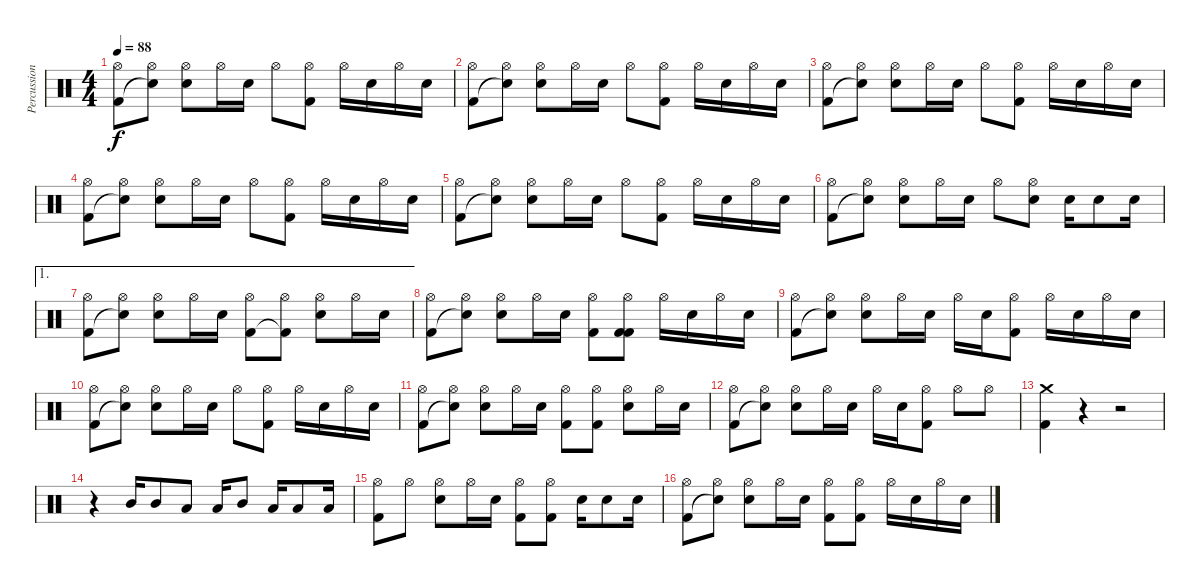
\track ("Percussion" "Percussion") {instrument percussion}
\staff {score}
\articulation defaults
\ts (4 4)
\tempo 88
\clef neutral
\ks c
("Hi-Hat (open)" "Kick (hit) 2").8{dy f} ("Hi-Hat (open)" "Snare (hit)"{t}).8 ("Hi-Hat (open)" "Snare (hit) 2").8 "Hi-Hat (open)".16 "Snare (hit) 2".16 "Hi-Hat (open)".8 ("Hi-Hat (open)" "Kick (hit) 2").8 "Hi-Hat (open)".16 "Snare (hit) 2".16 "Hi-Hat (open)".16 "Snare (hit) 2".16 |
("Hi-Hat (open)" "Kick (hit) 2").8 ("Hi-Hat (open)" "Snare (hit)"{t}).8 ("Hi-Hat (open)" "Snare (hit) 2").8 "Hi-Hat (open)".16 "Snare (hit) 2".16 "Hi-Hat (open)".8 ("Hi-Hat (open)" "Kick (hit) 2").8 "Hi-Hat (open)".16 "Snare (hit) 2".16 "Hi-Hat (open)".16 "Snare (hit) 2".16 |
("Hi-Hat (open)" "Kick (hit) 2").8 ("Hi-Hat (open)" "Snare (hit)"{t}).8 ("Hi-Hat (open)" "Snare (hit) 2").8 "Hi-Hat (open)".16 "Snare (hit) 2".16 "Hi-Hat (open)".8 ("Hi-Hat (open)" "Kick (hit) 2").8 "Hi-Hat (open)".16 "Snare (hit) 2".16 "Hi-Hat (open)".16 "Snare (hit) 2".16 |
("Hi-Hat (open)" "Kick (hit) 2").8 ("Hi-Hat (open)" "Snare (hit)"{t}).8 ("Hi-Hat (open)" "Snare (hit) 2").8 "Hi-Hat (open)".16 "Snare (hit) 2".16 "Hi-Hat (open)".8 ("Hi-Hat (open)" "Kick (hit) 2").8 "Hi-Hat (open)".16 "Snare (hit) 2".16 "Hi-Hat (open)".16 "Snare (hit) 2".16 |
("Hi-Hat (open)" "Kick (hit) 2").8 ("Hi-Hat (open)" "Snare (hit)"{t}).8 ("Hi-Hat (open)" "Snare (hit) 2").8 "Hi-Hat (open)".16 "Snare (hit) 2".16 "Hi-Hat (open)".8 ("Hi-Hat (open)" "Kick (hit) 2").8 "Hi-Hat (open)".16 "Snare (hit) 2".16 "Hi-Hat (open)".16 "Snare (hit) 2".16 |
("Hi-Hat (open)" "Kick (hit) 2").8 ("Hi-Hat (open)" "Snare (hit)"{t}).8 ("Hi-Hat (open)" "Snare (hit) 2").8 "Hi-Hat (open)".16 "Snare (hit) 2".16 "Hi-Hat (open)".8 ("Hi-Hat (open)" "Snare (hit) 2").8 "Snare (hit) 2".16 "Snare (hit) 2".8 "Snare (hit) 2".16 |
\ae 1
("Hi-Hat (open)" "Kick (hit) 2").8 ("Hi-Hat (open)" "Snare (hit)"{t}).8 ("Hi-Hat (open)" "Snare (hit) 2").8 "Hi-Hat (open)".16 "Snare (hit) 2".16 ("Hi-Hat (open)" "Kick (hit) 2").8 ("Hi-Hat (open)" "Kick (hit) 2"{t}).8 ("Hi-Hat (open)" "Snare (hit) 2").8 "Hi-Hat (open)".16 "Snare (hit) 2".16 |
("Hi-Hat (open)" "Kick (hit) 2").8 ("Hi-Hat (open)" "Snare (hit)"{t}).8 ("Hi-Hat (open)" "Snare (hit) 2").8 "Hi-Hat (open)".16 "Snare (hit) 2".16 ("Hi-Hat (open)" "Kick (hit) 2").8 ("Hi-Hat (open)" "Kick (hit) 2" "Kick (hit) 2").8 "Hi-Hat (open)".16 "Snare (hit) 2".16 "Hi-Hat (open)".16 "Snare (hit) 2".16 |
("Hi-Hat (open)" "Kick (hit) 2").8 ("Hi-Hat (open)" "Snare (hit)"{t}).8 ("Hi-Hat (open)" "Snare (hit) 2").8 "Hi-Hat (open)".16 "Snare (hit) 2".16 "Hi-Hat (open)".16 "Snare (hit) 2".16 ("Hi-Hat (open)" "Kick (hit) 2").8 "Hi-Hat (open)".16 "Snare (hit) 2".16 "Hi-Hat (open)".16 "Snare (hit) 2".16 |
("Hi-Hat (open)" "Kick (hit) 2").8 ("Hi-Hat (open)" "Snare (hit)"{t}).8 ("Hi-Hat (open)" "Snare (hit) 2").8 "Hi-Hat (open)".16 "Snare (hit) 2".16 "Hi-Hat (open)".8 ("Hi-Hat (open)" "Kick (hit) 2").8 "Hi-Hat (open)".16 "Snare (hit) 2".16 "Hi-Hat (open)".16 "Snare (hit) 2".16 |
("Hi-Hat (open)" "Kick (hit) 2").8 ("Hi-Hat (open)" "Snare (hit)"{t}).8 ("Hi-Hat (open)" "Snare (hit) 2").8 "Hi-Hat (open)".16 "Snare (hit) 2".16 ("Hi-Hat (open)" "Kick (hit) 2").8 ("Hi-Hat (open)" "Kick (hit) 2").8 ("Hi-Hat (open)" "Snare (hit) 2").8 "Hi-Hat (open)".16 "Snare (hit) 2".16 |
("Hi-Hat (open)" "Kick (hit) 2").8 ("Hi-Hat (open)" "Snare (hit)"{t}).8 ("Hi-Hat (open)" "Snare (hit) 2").8 "Hi-Hat (open)".16 "Snare (hit) 2".16 "Hi-Hat (open)".16 "Snare (hit) 2".16 ("Hi-Hat (open)" "Kick (hit) 2").8 "Hi-Hat (open)".8 "Hi-Hat (open)".8 |
("Crash medium (hit)" "Kick (hit) 2").4 r.4 r.2 |
r.4 "Mid Tom (hit)".16 "Mid Tom (hit)".8 "Low Tom (hit)".8 "Low Tom (hit)".16 "Mid Tom (hit)".8 "Low Tom (hit)".16 "Low Tom (hit)".8 "Low Tom (hit)".16 |
("Hi-Hat (open)" "Kick (hit) 2").8 "Hi-Hat (open)".8 ("Hi-Hat (open)" "Snare (hit) 2").8 "Hi-Hat (open)".16 "Snare (hit) 2".16 ("Hi-Hat (open)" "Kick (hit) 2").8 ("Hi-Hat (open)" "Kick (hit) 2").8 "Snare (hit) 2".16 "Snare (hit) 2".8 "Snare (hit) 2".16 |
("Hi-Hat (open)" "Kick (hit) 2").8 ("Hi-Hat (open)" "Snare (hit)"{t}).8 ("Hi-Hat (open)" "Snare (hit) 2").8 "Hi-Hat (open)".16 "Snare (hit) 2".16 ("Hi-Hat (open)" "Kick (hit) 2").8 ("Hi-Hat (open)" "Kick (hit) 2").8 "Hi-Hat (open)".16 "Snare (hit) 2".16 "Hi-Hat (open)".16 "Snare (hit) 2".16
